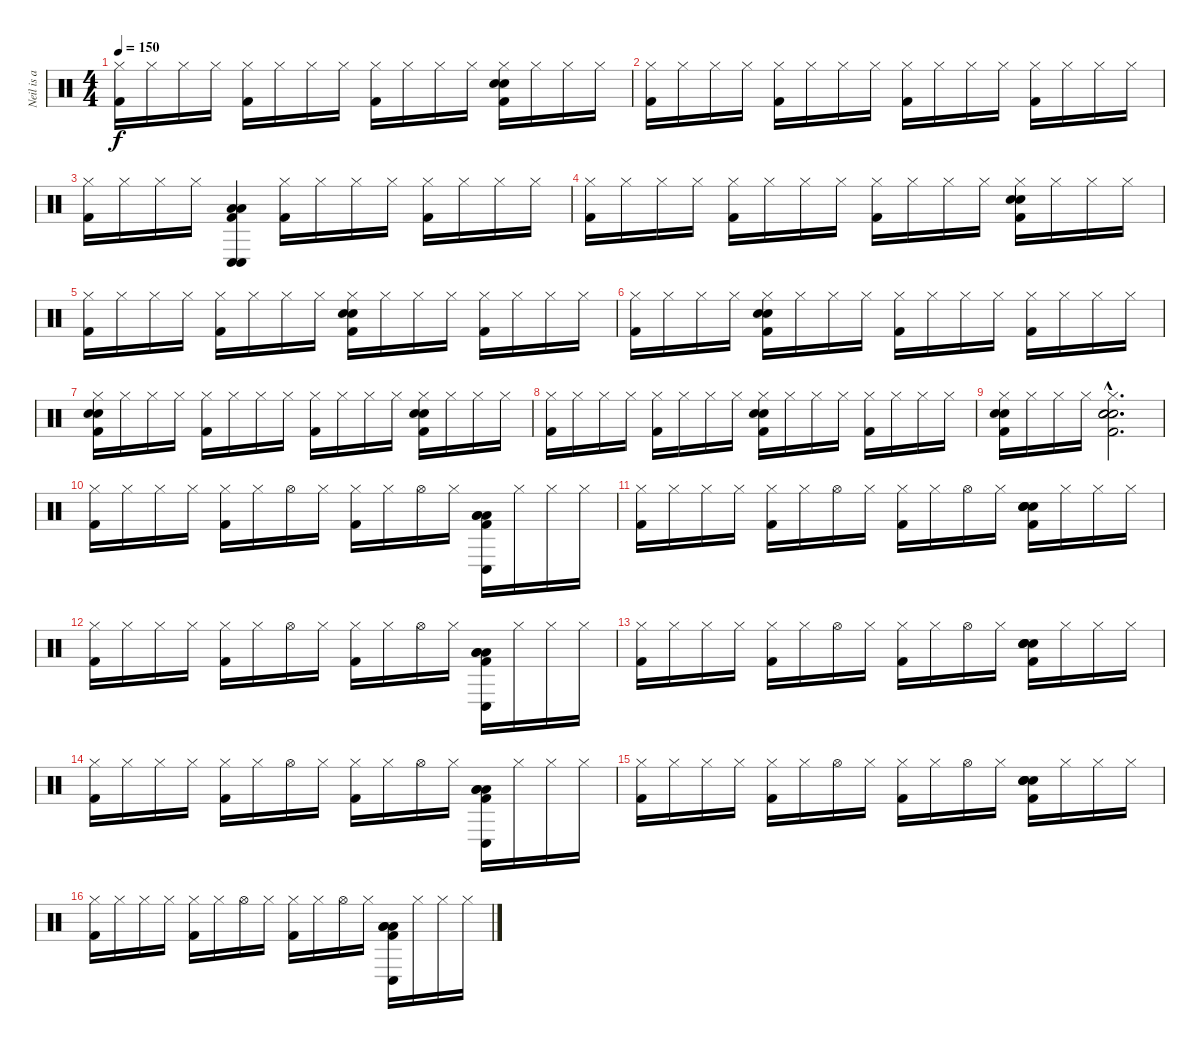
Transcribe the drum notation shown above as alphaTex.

\track ("Neil is a Drum God!!!" "Neil is a ") {instrument percussion}
\staff {score}
\articulation defaults
\ts (4 4)
\tempo 150
\clef neutral
\ks c
("Hi-Hat (closed)" "Kick (hit) 2").16{dy f} "Hi-Hat (closed)".16 "Hi-Hat (closed)".16 "Hi-Hat (closed)".16 ("Hi-Hat (closed)" "Kick (hit) 2").16 "Hi-Hat (closed)".16 "Hi-Hat (closed)".16 "Hi-Hat (closed)".16 ("Hi-Hat (closed)" "Kick (hit) 2").16 "Hi-Hat (closed)".16 "Hi-Hat (closed)".16 "Hi-Hat (closed)".16 ("Hi-Hat (closed)" "Snare (hit) 2" "Snare (hit) 2" "Kick (hit) 2").16 "Hi-Hat (closed)".16 "Hi-Hat (closed)".16 "Hi-Hat (closed)".16 |
("Hi-Hat (closed)" "Kick (hit) 2").16 "Hi-Hat (closed)".16 "Hi-Hat (closed)".16 "Hi-Hat (closed)".16 ("Hi-Hat (closed)" "Kick (hit) 2").16 "Hi-Hat (closed)".16 "Hi-Hat (closed)".16 "Hi-Hat (closed)".16 ("Hi-Hat (closed)" "Kick (hit) 2").16 "Hi-Hat (closed)".16 "Hi-Hat (closed)".16 "Hi-Hat (closed)".16 ("Hi-Hat (closed)" "Kick (hit) 2").16 "Hi-Hat (closed)".16 "Hi-Hat (closed)".16 "Hi-Hat (closed)".16 |
("Hi-Hat (closed)" "Kick (hit) 2").16 "Hi-Hat (closed)".16 "Hi-Hat (closed)".16 "Hi-Hat (closed)".16 ("Conga low (hit)" "Conga low (hit)" "Low Tom (hit)" "Low Tom (hit)" "Kick (hit) 2").4 ("Hi-Hat (closed)" "Kick (hit) 2").16 "Hi-Hat (closed)".16 "Hi-Hat (closed)".16 "Hi-Hat (closed)".16 ("Hi-Hat (closed)" "Kick (hit) 2").16 "Hi-Hat (closed)".16 "Hi-Hat (closed)".16 "Hi-Hat (closed)".16 |
("Hi-Hat (closed)" "Kick (hit) 2").16 "Hi-Hat (closed)".16 "Hi-Hat (closed)".16 "Hi-Hat (closed)".16 ("Hi-Hat (closed)" "Kick (hit) 2").16 "Hi-Hat (closed)".16 "Hi-Hat (closed)".16 "Hi-Hat (closed)".16 ("Hi-Hat (closed)" "Kick (hit) 2").16 "Hi-Hat (closed)".16 "Hi-Hat (closed)".16 "Hi-Hat (closed)".16 ("Hi-Hat (closed)" "Snare (hit) 2" "Snare (hit) 2" "Kick (hit) 2").16 "Hi-Hat (closed)".16 "Hi-Hat (closed)".16 "Hi-Hat (closed)".16 |
("Hi-Hat (closed)" "Kick (hit) 2").16 "Hi-Hat (closed)".16 "Hi-Hat (closed)".16 "Hi-Hat (closed)".16 ("Hi-Hat (closed)" "Kick (hit) 2").16 "Hi-Hat (closed)".16 "Hi-Hat (closed)".16 "Hi-Hat (closed)".16 ("Hi-Hat (closed)" "Snare (hit) 2" "Snare (hit) 2" "Kick (hit) 2").16 "Hi-Hat (closed)".16 "Hi-Hat (closed)".16 "Hi-Hat (closed)".16 ("Hi-Hat (closed)" "Kick (hit) 2").16 "Hi-Hat (closed)".16 "Hi-Hat (closed)".16 "Hi-Hat (closed)".16 |
("Hi-Hat (closed)" "Kick (hit) 2").16 "Hi-Hat (closed)".16 "Hi-Hat (closed)".16 "Hi-Hat (closed)".16 ("Hi-Hat (closed)" "Snare (hit) 2" "Snare (hit) 2" "Kick (hit) 2").16 "Hi-Hat (closed)".16 "Hi-Hat (closed)".16 "Hi-Hat (closed)".16 ("Hi-Hat (closed)" "Kick (hit) 2").16 "Hi-Hat (closed)".16 "Hi-Hat (closed)".16 "Hi-Hat (closed)".16 ("Hi-Hat (closed)" "Kick (hit) 2").16 "Hi-Hat (closed)".16 "Hi-Hat (closed)".16 "Hi-Hat (closed)".16 |
("Hi-Hat (closed)" "Snare (hit) 2" "Snare (hit) 2" "Kick (hit) 2").16 "Hi-Hat (closed)".16 "Hi-Hat (closed)".16 "Hi-Hat (closed)".16 ("Hi-Hat (closed)" "Kick (hit) 2").16 "Hi-Hat (closed)".16 "Hi-Hat (closed)".16 "Hi-Hat (closed)".16 ("Hi-Hat (closed)" "Kick (hit) 2").16 "Hi-Hat (closed)".16 "Hi-Hat (closed)".16 "Hi-Hat (closed)".16 ("Hi-Hat (closed)" "Snare (hit) 2" "Snare (hit) 2" "Kick (hit) 2").16 "Hi-Hat (closed)".16 "Hi-Hat (closed)".16 "Hi-Hat (closed)".16 |
("Hi-Hat (closed)" "Kick (hit) 2").16 "Hi-Hat (closed)".16 "Hi-Hat (closed)".16 "Hi-Hat (closed)".16 ("Hi-Hat (closed)" "Kick (hit) 2").16 "Hi-Hat (closed)".16 "Hi-Hat (closed)".16 "Hi-Hat (closed)".16 ("Hi-Hat (closed)" "Snare (hit) 2" "Snare (hit) 2" "Kick (hit) 2").16 "Hi-Hat (closed)".16 "Hi-Hat (closed)".16 "Hi-Hat (closed)".16 ("Hi-Hat (closed)" "Kick (hit) 2").16 "Hi-Hat (closed)".16 "Hi-Hat (closed)".16 "Hi-Hat (closed)".16 |
("Hi-Hat (closed)" "Snare (hit) 2" "Snare (hit) 2" "Kick (hit) 2").16 "Hi-Hat (closed)".16 "Hi-Hat (closed)".16 "Hi-Hat (closed)".16 ("Hi-Hat (closed)"{hac} "Snare (hit) 2"{hac} "Snare (hit) 2"{hac} "Snare (hit) 2"{hac} "Kick (hit) 2"{hac}).2{d} |
("Hi-Hat (closed)" "Kick (hit) 2").16 "Hi-Hat (closed)".16 "Hi-Hat (closed)".16 "Hi-Hat (closed)".16 ("Hi-Hat (closed)" "Kick (hit) 2").16 "Hi-Hat (closed)".16 "Hi-Hat (open)".16 "Hi-Hat (closed)".16 ("Hi-Hat (closed)" "Kick (hit) 2").16 "Hi-Hat (closed)".16 "Hi-Hat (open)".16 "Hi-Hat (closed)".16 ("Low Tom (hit)" "Low Tom (hit)" "Low Tom (hit)" "Conga low (hit)" "Kick (hit) 2").16 "Hi-Hat (closed)".16 "Hi-Hat (closed)".16 "Hi-Hat (closed)".16 |
("Hi-Hat (closed)" "Kick (hit) 2").16 "Hi-Hat (closed)".16 "Hi-Hat (closed)".16 "Hi-Hat (closed)".16 ("Hi-Hat (closed)" "Kick (hit) 2").16 "Hi-Hat (closed)".16 "Hi-Hat (open)".16 "Hi-Hat (closed)".16 ("Hi-Hat (closed)" "Kick (hit) 2").16 "Hi-Hat (closed)".16 "Hi-Hat (open)".16 "Hi-Hat (closed)".16 ("Snare (hit) 2" "Snare (hit) 2" "Snare (hit) 2" "Snare (hit) 2" "Kick (hit) 2").16 "Hi-Hat (closed)".16 "Hi-Hat (closed)".16 "Hi-Hat (closed)".16 |
("Hi-Hat (closed)" "Kick (hit) 2").16 "Hi-Hat (closed)".16 "Hi-Hat (closed)".16 "Hi-Hat (closed)".16 ("Hi-Hat (closed)" "Kick (hit) 2").16 "Hi-Hat (closed)".16 "Hi-Hat (open)".16 "Hi-Hat (closed)".16 ("Hi-Hat (closed)" "Kick (hit) 2").16 "Hi-Hat (closed)".16 "Hi-Hat (open)".16 "Hi-Hat (closed)".16 ("Low Tom (hit)" "Low Tom (hit)" "Low Tom (hit)" "Conga low (hit)" "Kick (hit) 2").16 "Hi-Hat (closed)".16 "Hi-Hat (closed)".16 "Hi-Hat (closed)".16 |
("Hi-Hat (closed)" "Kick (hit) 2").16 "Hi-Hat (closed)".16 "Hi-Hat (closed)".16 "Hi-Hat (closed)".16 ("Hi-Hat (closed)" "Kick (hit) 2").16 "Hi-Hat (closed)".16 "Hi-Hat (open)".16 "Hi-Hat (closed)".16 ("Hi-Hat (closed)" "Kick (hit) 2").16 "Hi-Hat (closed)".16 "Hi-Hat (open)".16 "Hi-Hat (closed)".16 ("Snare (hit) 2" "Snare (hit) 2" "Snare (hit) 2" "Snare (hit) 2" "Kick (hit) 2").16 "Hi-Hat (closed)".16 "Hi-Hat (closed)".16 "Hi-Hat (closed)".16 |
("Hi-Hat (closed)" "Kick (hit) 2").16 "Hi-Hat (closed)".16 "Hi-Hat (closed)".16 "Hi-Hat (closed)".16 ("Hi-Hat (closed)" "Kick (hit) 2").16 "Hi-Hat (closed)".16 "Hi-Hat (open)".16 "Hi-Hat (closed)".16 ("Hi-Hat (closed)" "Kick (hit) 2").16 "Hi-Hat (closed)".16 "Hi-Hat (open)".16 "Hi-Hat (closed)".16 ("Low Tom (hit)" "Low Tom (hit)" "Low Tom (hit)" "Conga low (hit)" "Kick (hit) 2").16 "Hi-Hat (closed)".16 "Hi-Hat (closed)".16 "Hi-Hat (closed)".16 |
("Hi-Hat (closed)" "Kick (hit) 2").16 "Hi-Hat (closed)".16 "Hi-Hat (closed)".16 "Hi-Hat (closed)".16 ("Hi-Hat (closed)" "Kick (hit) 2").16 "Hi-Hat (closed)".16 "Hi-Hat (open)".16 "Hi-Hat (closed)".16 ("Hi-Hat (closed)" "Kick (hit) 2").16 "Hi-Hat (closed)".16 "Hi-Hat (open)".16 "Hi-Hat (closed)".16 ("Snare (hit) 2" "Snare (hit) 2" "Snare (hit) 2" "Snare (hit) 2" "Kick (hit) 2").16 "Hi-Hat (closed)".16 "Hi-Hat (closed)".16 "Hi-Hat (closed)".16 |
("Hi-Hat (closed)" "Kick (hit) 2").16 "Hi-Hat (closed)".16 "Hi-Hat (closed)".16 "Hi-Hat (closed)".16 ("Hi-Hat (closed)" "Kick (hit) 2").16 "Hi-Hat (closed)".16 "Hi-Hat (open)".16 "Hi-Hat (closed)".16 ("Hi-Hat (closed)" "Kick (hit) 2").16 "Hi-Hat (closed)".16 "Hi-Hat (open)".16 "Hi-Hat (closed)".16 ("Low Tom (hit)" "Low Tom (hit)" "Low Tom (hit)" "Conga low (hit)" "Kick (hit) 2").16 "Hi-Hat (closed)".16 "Hi-Hat (closed)".16 "Hi-Hat (closed)".16
